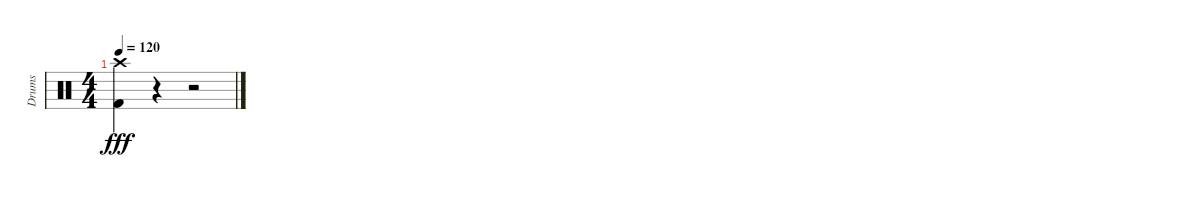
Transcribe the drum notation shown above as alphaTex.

\track ("Drums" "Drums") {instrument percussion}
\staff {score}
\articulation defaults
\ts (4 4)
\tempo 120
\clef neutral
\ks c
("Crash high (hit)" "Kick (hit) 2").4{dy fff} r.4 r.2
